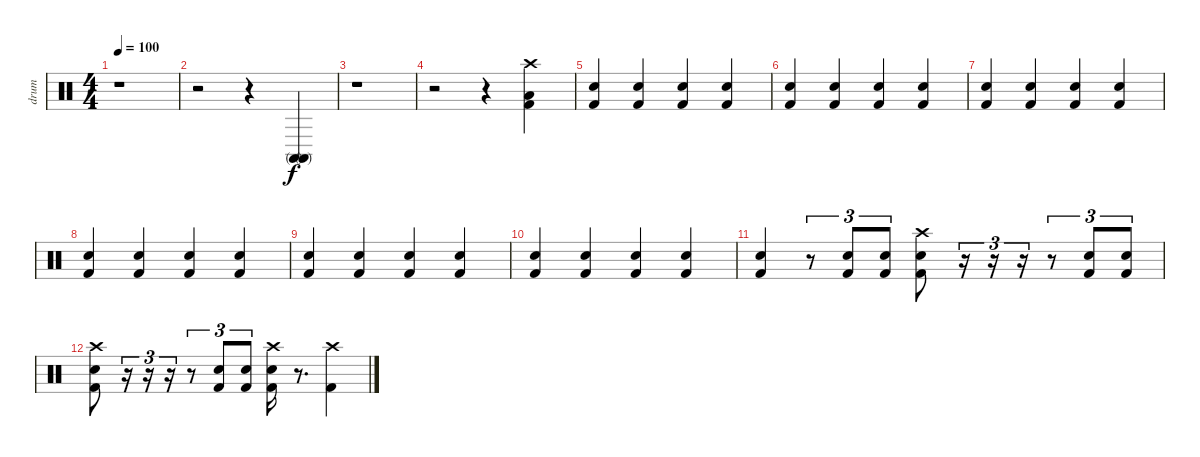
\track ("drum" "drum") {instrument percussion}
\staff {score}
\articulation defaults
\ts (4 4)
\tempo 100
\clef neutral
\ks c
r.1{dy f} |
r.2 r.4 ("Conga high (mute)" "Conga high (mute)").4 |
r.1 |
r.2 r.4 ("Crash high (hit)" "Low Floor Tom (hit)" "Kick (hit) 2").4 |
("Electric Snare (hit)" "Kick (hit) 2").4 ("Electric Snare (hit)" "Kick (hit) 2").4 ("Electric Snare (hit)" "Kick (hit) 2").4 ("Electric Snare (hit)" "Kick (hit) 2").4 |
("Electric Snare (hit)" "Kick (hit) 2").4 ("Electric Snare (hit)" "Kick (hit) 2").4 ("Electric Snare (hit)" "Kick (hit) 2").4 ("Electric Snare (hit)" "Kick (hit) 2").4 |
("Electric Snare (hit)" "Kick (hit) 2").4 ("Electric Snare (hit)" "Kick (hit) 2").4 ("Electric Snare (hit)" "Kick (hit) 2").4 ("Electric Snare (hit)" "Kick (hit) 2").4 |
("Electric Snare (hit)" "Kick (hit) 2").4 ("Electric Snare (hit)" "Kick (hit) 2").4 ("Electric Snare (hit)" "Kick (hit) 2").4 ("Electric Snare (hit)" "Kick (hit) 2").4 |
("Electric Snare (hit)" "Kick (hit) 2").4 ("Electric Snare (hit)" "Kick (hit) 2").4 ("Electric Snare (hit)" "Kick (hit) 2").4 ("Electric Snare (hit)" "Kick (hit) 2").4 |
("Electric Snare (hit)" "Kick (hit) 2").4 ("Electric Snare (hit)" "Kick (hit) 2").4 ("Electric Snare (hit)" "Kick (hit) 2").4 ("Electric Snare (hit)" "Kick (hit) 2").4 |
("Electric Snare (hit)" "Kick (hit) 2").4 r.8{tu (3 2)} ("Electric Snare (hit)" "Kick (hit) 2").8{tu (3 2)} ("Electric Snare (hit)" "Kick (hit) 2").8{tu (3 2)} ("Electric Snare (hit)" "Kick (hit) 2" "Crash high (hit)").8 r.16{tu (3 2)} r.16{tu (3 2)} r.16{tu (3 2)} r.8{tu (3 2)} ("Electric Snare (hit)" "Kick (hit) 2").8{tu (3 2)} ("Electric Snare (hit)" "Kick (hit) 2").8{tu (3 2)} |
("Electric Snare (hit)" "Kick (hit) 2" "Crash high (hit)").8 r.16{tu (3 2)} r.16{tu (3 2)} r.16{tu (3 2)} r.8{tu (3 2)} ("Electric Snare (hit)" "Kick (hit) 2").8{tu (3 2)} ("Electric Snare (hit)" "Kick (hit) 2").8{tu (3 2)} ("Electric Snare (hit)" "Kick (hit) 2" "Crash high (hit)").16 r.8{d} ("Crash high (hit)" "Kick (hit) 2").4
